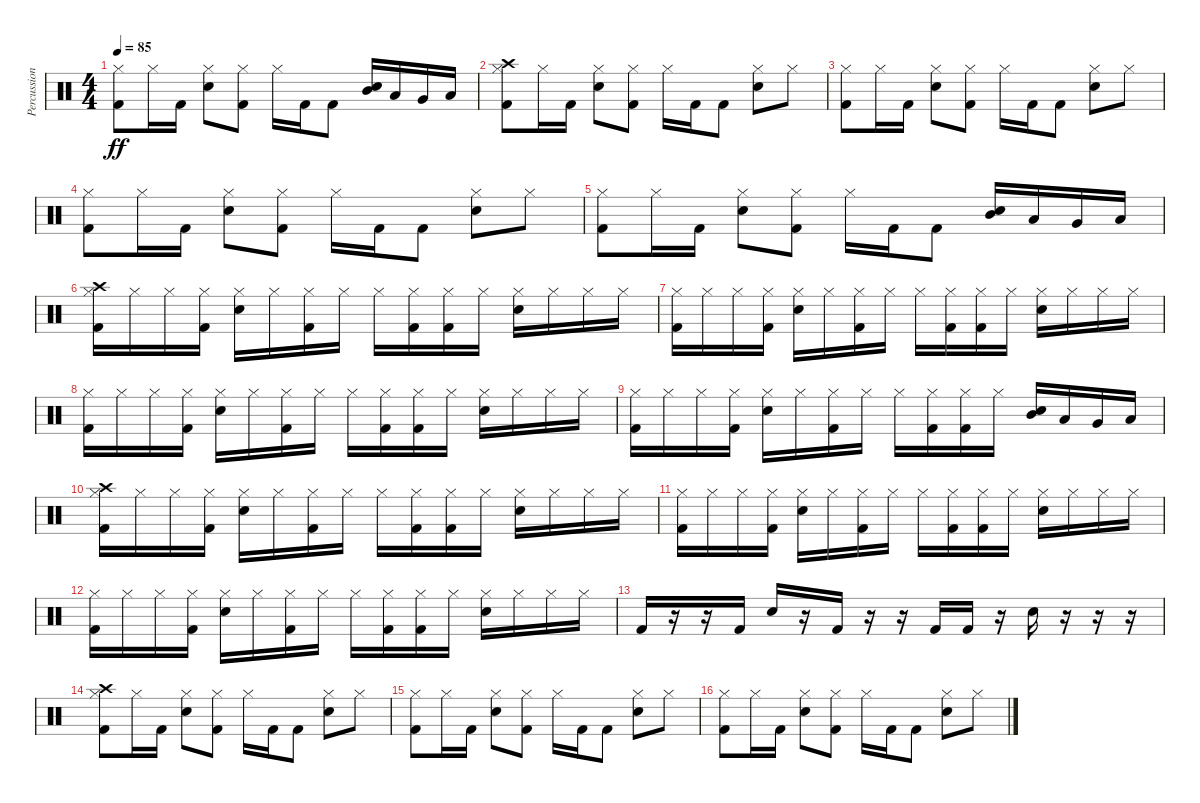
\track ("Percussion" "Percussion") {instrument percussion}
\staff {score}
\articulation defaults
\ts (4 4)
\tempo 85
\clef neutral
\ks c
("Hi-Hat (closed)" "Kick (hit) 2").8{dy ff} "Hi-Hat (closed)".16 "Kick (hit) 2".16 ("Hi-Hat (closed)" "Electric Snare (hit)").8 ("Hi-Hat (closed)" "Kick (hit) 2").8 "Hi-Hat (closed)".16 "Kick (hit) 2".16 "Kick (hit) 2".8 ("Mid Tom (hit)" "Electric Snare (hit)").16 "Low Tom (hit)".16 "Very Low Tom (hit)".16 "Low Floor Tom (hit)".16 |
("Crash high (hit)" "Hi-Hat (closed)" "Kick (hit) 2").8 "Hi-Hat (closed)".16 "Kick (hit) 2".16 ("Hi-Hat (closed)" "Electric Snare (hit)").8 ("Hi-Hat (closed)" "Kick (hit) 2").8 "Hi-Hat (closed)".16 "Kick (hit) 2".16 "Kick (hit) 2".8 ("Hi-Hat (closed)" "Electric Snare (hit)").8 "Hi-Hat (closed)".8 |
("Hi-Hat (closed)" "Kick (hit) 2").8 "Hi-Hat (closed)".16 "Kick (hit) 2".16 ("Hi-Hat (closed)" "Electric Snare (hit)").8 ("Hi-Hat (closed)" "Kick (hit) 2").8 "Hi-Hat (closed)".16 "Kick (hit) 2".16 "Kick (hit) 2".8 ("Hi-Hat (closed)" "Electric Snare (hit)").8 "Hi-Hat (closed)".8 |
("Hi-Hat (closed)" "Kick (hit) 2").8 "Hi-Hat (closed)".16 "Kick (hit) 2".16 ("Hi-Hat (closed)" "Electric Snare (hit)").8 ("Hi-Hat (closed)" "Kick (hit) 2").8 "Hi-Hat (closed)".16 "Kick (hit) 2".16 "Kick (hit) 2".8 ("Hi-Hat (closed)" "Electric Snare (hit)").8 "Hi-Hat (closed)".8 |
("Hi-Hat (closed)" "Kick (hit) 2").8 "Hi-Hat (closed)".16 "Kick (hit) 2".16 ("Hi-Hat (closed)" "Electric Snare (hit)").8 ("Hi-Hat (closed)" "Kick (hit) 2").8 "Hi-Hat (closed)".16 "Kick (hit) 2".16 "Kick (hit) 2".8 ("Mid Tom (hit)" "Electric Snare (hit)").16 "Low Tom (hit)".16 "Very Low Tom (hit)".16 "Low Floor Tom (hit)".16 |
("Crash high (hit)" "Hi-Hat (closed)" "Kick (hit) 2").16 "Hi-Hat (closed)".16 "Hi-Hat (closed)".16 ("Hi-Hat (closed)" "Kick (hit) 2").16 ("Hi-Hat (closed)" "Electric Snare (hit)").16 "Hi-Hat (closed)".16 ("Hi-Hat (closed)" "Kick (hit) 2").16 "Hi-Hat (closed)".16 "Hi-Hat (closed)".16 ("Hi-Hat (closed)" "Kick (hit) 2").16 ("Hi-Hat (closed)" "Kick (hit) 2").16 "Hi-Hat (closed)".16 ("Hi-Hat (closed)" "Electric Snare (hit)").16 "Hi-Hat (closed)".16 "Hi-Hat (closed)".16 "Hi-Hat (closed)".16 |
("Hi-Hat (closed)" "Kick (hit) 2").16 "Hi-Hat (closed)".16 "Hi-Hat (closed)".16 ("Hi-Hat (closed)" "Kick (hit) 2").16 ("Hi-Hat (closed)" "Electric Snare (hit)").16 "Hi-Hat (closed)".16 ("Hi-Hat (closed)" "Kick (hit) 2").16 "Hi-Hat (closed)".16 "Hi-Hat (closed)".16 ("Hi-Hat (closed)" "Kick (hit) 2").16 ("Hi-Hat (closed)" "Kick (hit) 2").16 "Hi-Hat (closed)".16 ("Hi-Hat (closed)" "Electric Snare (hit)").16 "Hi-Hat (closed)".16 "Hi-Hat (closed)".16 "Hi-Hat (closed)".16 |
("Hi-Hat (closed)" "Kick (hit) 2").16 "Hi-Hat (closed)".16 "Hi-Hat (closed)".16 ("Hi-Hat (closed)" "Kick (hit) 2").16 ("Hi-Hat (closed)" "Electric Snare (hit)").16 "Hi-Hat (closed)".16 ("Hi-Hat (closed)" "Kick (hit) 2").16 "Hi-Hat (closed)".16 "Hi-Hat (closed)".16 ("Hi-Hat (closed)" "Kick (hit) 2").16 ("Hi-Hat (closed)" "Kick (hit) 2").16 "Hi-Hat (closed)".16 ("Hi-Hat (closed)" "Electric Snare (hit)").16 "Hi-Hat (closed)".16 "Hi-Hat (closed)".16 "Hi-Hat (closed)".16 |
("Hi-Hat (closed)" "Kick (hit) 2").16 "Hi-Hat (closed)".16 "Hi-Hat (closed)".16 ("Hi-Hat (closed)" "Kick (hit) 2").16 ("Hi-Hat (closed)" "Electric Snare (hit)").16 "Hi-Hat (closed)".16 ("Hi-Hat (closed)" "Kick (hit) 2").16 "Hi-Hat (closed)".16 "Hi-Hat (closed)".16 ("Hi-Hat (closed)" "Kick (hit) 2").16 ("Hi-Hat (closed)" "Kick (hit) 2").16 "Hi-Hat (closed)".16 ("Mid Tom (hit)" "Electric Snare (hit)").16 "Low Tom (hit)".16 "Very Low Tom (hit)".16 "Low Floor Tom (hit)".16 |
("Crash high (hit)" "Hi-Hat (closed)" "Kick (hit) 2").16 "Hi-Hat (closed)".16 "Hi-Hat (closed)".16 ("Hi-Hat (closed)" "Kick (hit) 2").16 ("Hi-Hat (closed)" "Electric Snare (hit)").16 "Hi-Hat (closed)".16 ("Hi-Hat (closed)" "Kick (hit) 2").16 "Hi-Hat (closed)".16 "Hi-Hat (closed)".16 ("Hi-Hat (closed)" "Kick (hit) 2").16 ("Hi-Hat (closed)" "Kick (hit) 2").16 "Hi-Hat (closed)".16 ("Hi-Hat (closed)" "Electric Snare (hit)").16 "Hi-Hat (closed)".16 "Hi-Hat (closed)".16 "Hi-Hat (closed)".16 |
("Hi-Hat (closed)" "Kick (hit) 2").16 "Hi-Hat (closed)".16 "Hi-Hat (closed)".16 ("Hi-Hat (closed)" "Kick (hit) 2").16 ("Hi-Hat (closed)" "Electric Snare (hit)").16 "Hi-Hat (closed)".16 ("Hi-Hat (closed)" "Kick (hit) 2").16 "Hi-Hat (closed)".16 "Hi-Hat (closed)".16 ("Hi-Hat (closed)" "Kick (hit) 2").16 ("Hi-Hat (closed)" "Kick (hit) 2").16 "Hi-Hat (closed)".16 ("Hi-Hat (closed)" "Electric Snare (hit)").16 "Hi-Hat (closed)".16 "Hi-Hat (closed)".16 "Hi-Hat (closed)".16 |
("Hi-Hat (closed)" "Kick (hit) 2").16 "Hi-Hat (closed)".16 "Hi-Hat (closed)".16 ("Hi-Hat (closed)" "Kick (hit) 2").16 ("Hi-Hat (closed)" "Electric Snare (hit)").16 "Hi-Hat (closed)".16 ("Hi-Hat (closed)" "Kick (hit) 2").16 "Hi-Hat (closed)".16 "Hi-Hat (closed)".16 ("Hi-Hat (closed)" "Kick (hit) 2").16 ("Hi-Hat (closed)" "Kick (hit) 2").16 "Hi-Hat (closed)".16 ("Hi-Hat (closed)" "Electric Snare (hit)").16 "Hi-Hat (closed)".16 "Hi-Hat (closed)".16 "Hi-Hat (closed)".16 |
"Kick (hit) 2".16 r.16 r.16 "Kick (hit) 2".16 "Electric Snare (hit)".16 r.16 "Kick (hit) 2".16 r.16 r.16 "Kick (hit) 2".16 "Kick (hit) 2".16 r.16 "Electric Snare (hit)".16 r.16 r.16 r.16 |
("Crash high (hit)" "Hi-Hat (closed)" "Kick (hit) 2").8 "Hi-Hat (closed)".16 "Kick (hit) 2".16 ("Hi-Hat (closed)" "Electric Snare (hit)").8 ("Hi-Hat (closed)" "Kick (hit) 2").8 "Hi-Hat (closed)".16 "Kick (hit) 2".16 "Kick (hit) 2".8 ("Hi-Hat (closed)" "Electric Snare (hit)").8 "Hi-Hat (closed)".8 |
("Hi-Hat (closed)" "Kick (hit) 2").8 "Hi-Hat (closed)".16 "Kick (hit) 2".16 ("Hi-Hat (closed)" "Electric Snare (hit)").8 ("Hi-Hat (closed)" "Kick (hit) 2").8 "Hi-Hat (closed)".16 "Kick (hit) 2".16 "Kick (hit) 2".8 ("Hi-Hat (closed)" "Electric Snare (hit)").8 "Hi-Hat (closed)".8 |
("Hi-Hat (closed)" "Kick (hit) 2").8 "Hi-Hat (closed)".16 "Kick (hit) 2".16 ("Hi-Hat (closed)" "Electric Snare (hit)").8 ("Hi-Hat (closed)" "Kick (hit) 2").8 "Hi-Hat (closed)".16 "Kick (hit) 2".16 "Kick (hit) 2".8 ("Hi-Hat (closed)" "Electric Snare (hit)").8 "Hi-Hat (closed)".8
